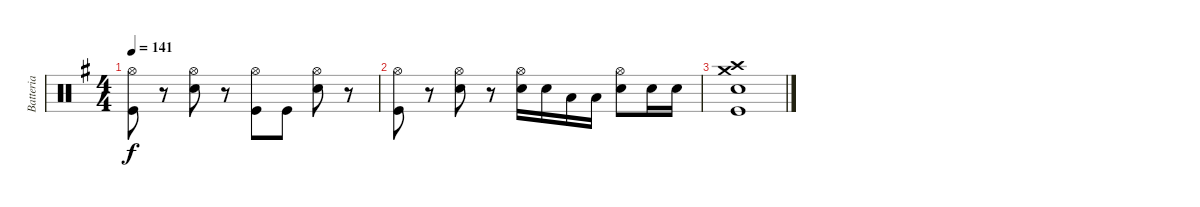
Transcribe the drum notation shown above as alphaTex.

\track ("Batteria" "Batteria") {instrument percussion}
\staff {score}
\articulation defaults
\ts (4 4)
\tempo 141
\clef neutral
\ks eminor
("Hi-Hat (open)" "Kick (hit)").8{dy f} r.8 ("Hi-Hat (open)" "Electric Snare (hit)").8 r.8 ("Hi-Hat (open)" "Kick (hit)").8 "Kick (hit)".8 ("Hi-Hat (open)" "Electric Snare (hit)").8 r.8 |
("Hi-Hat (open)" "Kick (hit)").8 r.8 ("Hi-Hat (open)" "Electric Snare (hit)").8 r.8 ("Hi-Hat (open)" "Electric Snare (hit)").16 "Electric Snare (hit)".16 "Low Tom (hit)".16 "Low Tom (hit)".16 ("Hi-Hat (open)" "Electric Snare (hit)").8 "Electric Snare (hit)".16 "Electric Snare (hit)".16 |
("Crash high (hit)" "Crash medium (hit)" "Electric Snare (hit)" "Kick (hit)").1
